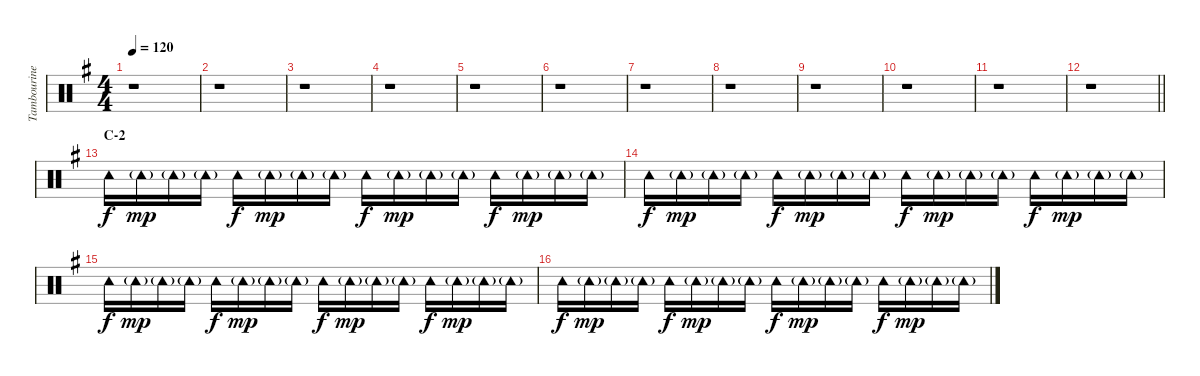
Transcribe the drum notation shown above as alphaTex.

\track ("Tambourine" "Tambourine") {instrument percussion}
\staff {score}
\articulation defaults
\ts (4 4)
\tempo 120
\clef neutral
\ks g
r.1{dy f} |
r.1 |
r.1 |
r.1 |
r.1 |
r.1 |
r.1 |
r.1 |
r.1 |
r.1 |
r.1 |
\barLineRight lightlight
r.1 |
\section ("" "C-2")
"Tambourine (hit)".16 "Tambourine (hit)"{g}.16{dy mp} "Tambourine (hit)"{g}.16 "Tambourine (hit)"{g}.16 "Tambourine (hit)".16{dy f} "Tambourine (hit)"{g}.16{dy mp} "Tambourine (hit)"{g}.16 "Tambourine (hit)"{g}.16 "Tambourine (hit)".16{dy f} "Tambourine (hit)"{g}.16{dy mp} "Tambourine (hit)"{g}.16 "Tambourine (hit)"{g}.16 "Tambourine (hit)".16{dy f} "Tambourine (hit)"{g}.16{dy mp} "Tambourine (hit)"{g}.16 "Tambourine (hit)"{g}.16 |
"Tambourine (hit)".16{dy f} "Tambourine (hit)"{g}.16{dy mp} "Tambourine (hit)"{g}.16 "Tambourine (hit)"{g}.16 "Tambourine (hit)".16{dy f} "Tambourine (hit)"{g}.16{dy mp} "Tambourine (hit)"{g}.16 "Tambourine (hit)"{g}.16 "Tambourine (hit)".16{dy f} "Tambourine (hit)"{g}.16{dy mp} "Tambourine (hit)"{g}.16 "Tambourine (hit)"{g}.16 "Tambourine (hit)".16{dy f} "Tambourine (hit)"{g}.16{dy mp} "Tambourine (hit)"{g}.16 "Tambourine (hit)"{g}.16 |
"Tambourine (hit)".16{dy f} "Tambourine (hit)"{g}.16{dy mp} "Tambourine (hit)"{g}.16 "Tambourine (hit)"{g}.16 "Tambourine (hit)".16{dy f} "Tambourine (hit)"{g}.16{dy mp} "Tambourine (hit)"{g}.16 "Tambourine (hit)"{g}.16 "Tambourine (hit)".16{dy f} "Tambourine (hit)"{g}.16{dy mp} "Tambourine (hit)"{g}.16 "Tambourine (hit)"{g}.16 "Tambourine (hit)".16{dy f} "Tambourine (hit)"{g}.16{dy mp} "Tambourine (hit)"{g}.16 "Tambourine (hit)"{g}.16 |
"Tambourine (hit)".16{dy f} "Tambourine (hit)"{g}.16{dy mp} "Tambourine (hit)"{g}.16 "Tambourine (hit)"{g}.16 "Tambourine (hit)".16{dy f} "Tambourine (hit)"{g}.16{dy mp} "Tambourine (hit)"{g}.16 "Tambourine (hit)"{g}.16 "Tambourine (hit)".16{dy f} "Tambourine (hit)"{g}.16{dy mp} "Tambourine (hit)"{g}.16 "Tambourine (hit)"{g}.16 "Tambourine (hit)".16{dy f} "Tambourine (hit)"{g}.16{dy mp} "Tambourine (hit)"{g}.16 "Tambourine (hit)"{g}.16
